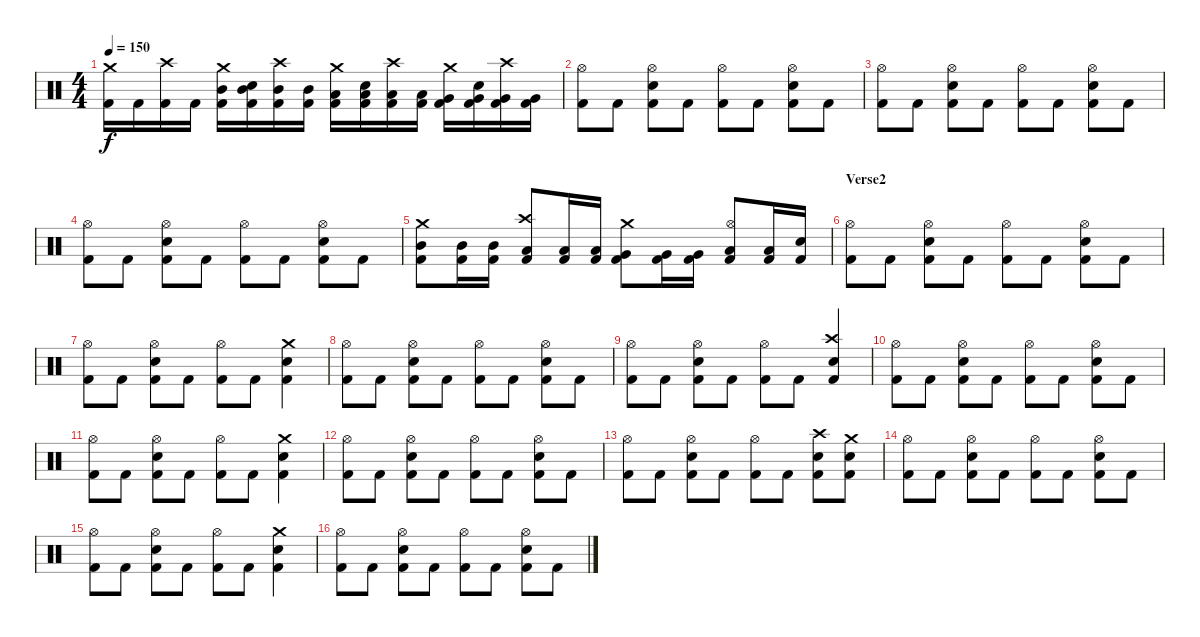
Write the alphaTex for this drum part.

\track "" {instrument percussion}
\staff {score}
\articulation defaults
\ts (4 4)
\tempo 150
\clef neutral
\ks c
("Crash medium (hit)" "Kick (hit) 2").16{dy f} "Kick (hit) 2".16 ("Crash high (hit)" "Kick (hit) 2").16 "Kick (hit) 2".16 ("Crash medium (hit)" "Mid Tom (hit)" "Kick (hit) 2").16 ("Electric Snare (hit)" "Mid Tom (hit)" "Kick (hit) 2").16 ("Crash high (hit)" "Mid Tom (hit)" "Kick (hit) 2").16 ("Mid Tom (hit)" "Kick (hit) 2").16 ("Crash medium (hit)" "Low Tom (hit)" "Kick (hit) 2").16 ("Electric Snare (hit)" "Low Tom (hit)" "Kick (hit) 2").16 ("Crash high (hit)" "Low Tom (hit)" "Kick (hit) 2").16 ("Low Tom (hit)" "Kick (hit) 2").16 ("Crash medium (hit)" "Very Low Tom (hit)" "Kick (hit) 2").16 ("Electric Snare (hit)" "Very Low Tom (hit)" "Kick (hit) 2").16 ("Crash high (hit)" "Very Low Tom (hit)" "Kick (hit) 2").16 ("Very Low Tom (hit)" "Kick (hit) 2").16 |
("Hi-Hat (open)" "Kick (hit) 2").8 "Kick (hit) 2".8 ("Hi-Hat (open)" "Electric Snare (hit)" "Kick (hit) 2").8 "Kick (hit) 2".8 ("Hi-Hat (open)" "Kick (hit) 2").8 "Kick (hit) 2".8 ("Hi-Hat (open)" "Electric Snare (hit)" "Kick (hit) 2").8 "Kick (hit) 2".8 |
("Hi-Hat (open)" "Kick (hit) 2").8 "Kick (hit) 2".8 ("Hi-Hat (open)" "Electric Snare (hit)" "Kick (hit) 2").8 "Kick (hit) 2".8 ("Hi-Hat (open)" "Kick (hit) 2").8 "Kick (hit) 2".8 ("Hi-Hat (open)" "Electric Snare (hit)" "Kick (hit) 2").8 "Kick (hit) 2".8 |
("Hi-Hat (open)" "Kick (hit) 2").8 "Kick (hit) 2".8 ("Hi-Hat (open)" "Electric Snare (hit)" "Kick (hit) 2").8 "Kick (hit) 2".8 ("Hi-Hat (open)" "Kick (hit) 2").8 "Kick (hit) 2".8 ("Hi-Hat (open)" "Electric Snare (hit)" "Kick (hit) 2").8 "Kick (hit) 2".8 |
("Crash medium (hit)" "Mid Tom (hit)" "Kick (hit) 2").8 ("Mid Tom (hit)" "Kick (hit) 2").16 ("Mid Tom (hit)" "Kick (hit) 2").16 ("Crash high (hit)" "Low Tom (hit)" "Kick (hit) 2").8 ("Low Tom (hit)" "Kick (hit) 2").16 ("Low Tom (hit)" "Kick (hit) 2").16 ("Crash medium (hit)" "Very Low Tom (hit)" "Kick (hit) 2").8 ("Very Low Tom (hit)" "Kick (hit) 2").16 ("Very Low Tom (hit)" "Kick (hit) 2").16 ("Hi-Hat (open)" "Low Floor Tom (hit)" "Kick (hit) 2").8 ("Low Floor Tom (hit)" "Kick (hit) 2").16 ("Electric Snare (hit)" "Kick (hit) 2").16 |
\section ("" "Verse2")
("Hi-Hat (open)" "Kick (hit) 2").8 "Kick (hit) 2".8 ("Hi-Hat (open)" "Electric Snare (hit)" "Kick (hit) 2").8 "Kick (hit) 2".8 ("Hi-Hat (open)" "Kick (hit) 2").8 "Kick (hit) 2".8 ("Hi-Hat (open)" "Electric Snare (hit)" "Kick (hit) 2").8 "Kick (hit) 2".8 |
("Hi-Hat (open)" "Kick (hit) 2").8 "Kick (hit) 2".8 ("Hi-Hat (open)" "Electric Snare (hit)" "Kick (hit) 2").8 "Kick (hit) 2".8 ("Hi-Hat (open)" "Kick (hit) 2").8 "Kick (hit) 2".8 ("Crash medium (hit)" "Electric Snare (hit)" "Kick (hit) 2").4 |
("Hi-Hat (open)" "Kick (hit) 2").8 "Kick (hit) 2".8 ("Hi-Hat (open)" "Electric Snare (hit)" "Kick (hit) 2").8 "Kick (hit) 2".8 ("Hi-Hat (open)" "Kick (hit) 2").8 "Kick (hit) 2".8 ("Hi-Hat (open)" "Electric Snare (hit)" "Kick (hit) 2").8 "Kick (hit) 2".8 |
("Hi-Hat (open)" "Kick (hit) 2").8 "Kick (hit) 2".8 ("Hi-Hat (open)" "Electric Snare (hit)" "Kick (hit) 2").8 "Kick (hit) 2".8 ("Hi-Hat (open)" "Kick (hit) 2").8 "Kick (hit) 2".8 ("Crash high (hit)" "Electric Snare (hit)" "Kick (hit) 2").4 |
("Hi-Hat (open)" "Kick (hit) 2").8 "Kick (hit) 2".8 ("Hi-Hat (open)" "Electric Snare (hit)" "Kick (hit) 2").8 "Kick (hit) 2".8 ("Hi-Hat (open)" "Kick (hit) 2").8 "Kick (hit) 2".8 ("Hi-Hat (open)" "Electric Snare (hit)" "Kick (hit) 2").8 "Kick (hit) 2".8 |
("Hi-Hat (open)" "Kick (hit) 2").8 "Kick (hit) 2".8 ("Hi-Hat (open)" "Electric Snare (hit)" "Kick (hit) 2").8 "Kick (hit) 2".8 ("Hi-Hat (open)" "Kick (hit) 2").8 "Kick (hit) 2".8 ("Crash medium (hit)" "Electric Snare (hit)" "Kick (hit) 2").4 |
("Hi-Hat (open)" "Kick (hit) 2").8 "Kick (hit) 2".8 ("Hi-Hat (open)" "Electric Snare (hit)" "Kick (hit) 2").8 "Kick (hit) 2".8 ("Hi-Hat (open)" "Kick (hit) 2").8 "Kick (hit) 2".8 ("Hi-Hat (open)" "Electric Snare (hit)" "Kick (hit) 2").8 "Kick (hit) 2".8 |
("Hi-Hat (open)" "Kick (hit) 2").8 "Kick (hit) 2".8 ("Hi-Hat (open)" "Electric Snare (hit)" "Kick (hit) 2").8 "Kick (hit) 2".8 ("Hi-Hat (open)" "Kick (hit) 2").8 "Kick (hit) 2".8 ("Crash high (hit)" "Electric Snare (hit)" "Kick (hit) 2").8 ("Crash medium (hit)" "Electric Snare (hit)" "Kick (hit) 2").8 |
("Hi-Hat (open)" "Kick (hit) 2").8 "Kick (hit) 2".8 ("Hi-Hat (open)" "Electric Snare (hit)" "Kick (hit) 2").8 "Kick (hit) 2".8 ("Hi-Hat (open)" "Kick (hit) 2").8 "Kick (hit) 2".8 ("Hi-Hat (open)" "Electric Snare (hit)" "Kick (hit) 2").8 "Kick (hit) 2".8 |
("Hi-Hat (open)" "Kick (hit) 2").8 "Kick (hit) 2".8 ("Hi-Hat (open)" "Electric Snare (hit)" "Kick (hit) 2").8 "Kick (hit) 2".8 ("Hi-Hat (open)" "Kick (hit) 2").8 "Kick (hit) 2".8 ("Crash medium (hit)" "Electric Snare (hit)" "Kick (hit) 2").4 |
("Hi-Hat (open)" "Kick (hit) 2").8 "Kick (hit) 2".8 ("Hi-Hat (open)" "Electric Snare (hit)" "Kick (hit) 2").8 "Kick (hit) 2".8 ("Hi-Hat (open)" "Kick (hit) 2").8 "Kick (hit) 2".8 ("Hi-Hat (open)" "Electric Snare (hit)" "Kick (hit) 2").8 "Kick (hit) 2".8
